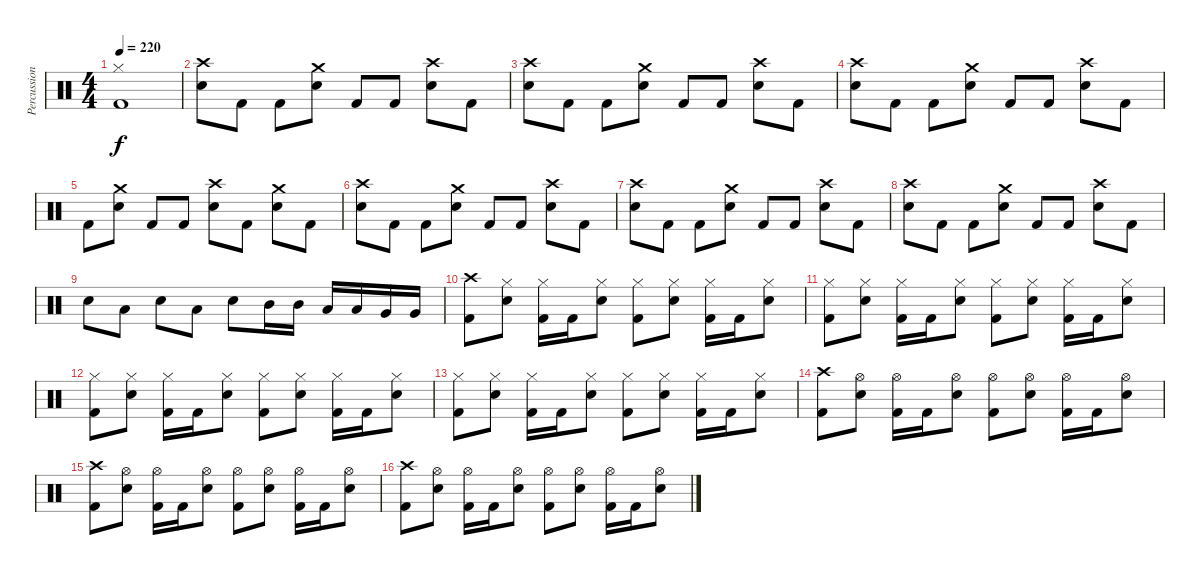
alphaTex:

\track ("Percussions" "Percussion") {instrument percussion}
\staff {score}
\articulation defaults
\ts (4 4)
\tempo 220
\clef neutral
\ks c
("Hi-Hat (closed)" "Kick (hit) 2").1{dy f} |
("Crash high (hit)" "Snare (hit) 2").8 "Kick (hit) 2".8 "Kick (hit) 2".8 ("Crash medium (hit)" "Snare (hit) 2").8 "Kick (hit) 2".8 "Kick (hit) 2".8 ("Crash high (hit)" "Snare (hit) 2").8 "Kick (hit) 2".8 |
("Crash high (hit)" "Snare (hit) 2").8 "Kick (hit) 2".8 "Kick (hit) 2".8 ("Crash medium (hit)" "Snare (hit) 2").8 "Kick (hit) 2".8 "Kick (hit) 2".8 ("Crash high (hit)" "Snare (hit) 2").8 "Kick (hit) 2".8 |
("Crash high (hit)" "Snare (hit) 2").8 "Kick (hit) 2".8 "Kick (hit) 2".8 ("Crash medium (hit)" "Snare (hit) 2").8 "Kick (hit) 2".8 "Kick (hit) 2".8 ("Crash high (hit)" "Snare (hit) 2").8 "Kick (hit) 2".8 |
"Kick (hit) 2".8 ("Crash medium (hit)" "Snare (hit) 2").8 "Kick (hit) 2".8 "Kick (hit) 2".8 ("Crash high (hit)" "Snare (hit) 2").8 "Kick (hit) 2".8 ("Crash medium (hit)" "Snare (hit) 2").8 "Kick (hit) 2".8 |
("Crash high (hit)" "Snare (hit) 2").8 "Kick (hit) 2".8 "Kick (hit) 2".8 ("Crash medium (hit)" "Snare (hit) 2").8 "Kick (hit) 2".8 "Kick (hit) 2".8 ("Crash high (hit)" "Snare (hit) 2").8 "Kick (hit) 2".8 |
("Crash high (hit)" "Snare (hit) 2").8 "Kick (hit) 2".8 "Kick (hit) 2".8 ("Crash medium (hit)" "Snare (hit) 2").8 "Kick (hit) 2".8 "Kick (hit) 2".8 ("Crash high (hit)" "Snare (hit) 2").8 "Kick (hit) 2".8 |
("Crash high (hit)" "Snare (hit) 2").8 "Kick (hit) 2".8 "Kick (hit) 2".8 ("Crash medium (hit)" "Snare (hit) 2").8 "Kick (hit) 2".8 "Kick (hit) 2".8 ("Crash high (hit)" "Snare (hit) 2").8 "Kick (hit) 2".8 |
"Snare (hit) 2".8 "Low Tom (hit)".8 "Snare (hit) 2".8 "Low Tom (hit)".8 "Snare (hit) 2".8 "Mid Tom (hit)".16 "Mid Tom (hit)".16 "Low Tom (hit)".16 "Low Tom (hit)".16 "Very Low Tom (hit)".16 "Very Low Tom (hit)".16 |
("Crash high (hit)" "Kick (hit) 2").8 ("Hi-Hat (closed)" "Snare (hit) 2").8 ("Hi-Hat (closed)" "Kick (hit) 2").16 "Kick (hit) 2".16 ("Hi-Hat (closed)" "Snare (hit) 2").8 ("Hi-Hat (closed)" "Kick (hit) 2").8 ("Hi-Hat (closed)" "Snare (hit) 2").8 ("Hi-Hat (closed)" "Kick (hit) 2").16 "Kick (hit) 2".16 ("Hi-Hat (closed)" "Snare (hit) 2").8 |
("Hi-Hat (closed)" "Kick (hit) 2").8 ("Hi-Hat (closed)" "Snare (hit) 2").8 ("Hi-Hat (closed)" "Kick (hit) 2").16 "Kick (hit) 2".16 ("Hi-Hat (closed)" "Snare (hit) 2").8 ("Hi-Hat (closed)" "Kick (hit) 2").8 ("Hi-Hat (closed)" "Snare (hit) 2").8 ("Hi-Hat (closed)" "Kick (hit) 2").16 "Kick (hit) 2".16 ("Hi-Hat (closed)" "Snare (hit) 2").8 |
("Hi-Hat (closed)" "Kick (hit) 2").8 ("Hi-Hat (closed)" "Snare (hit) 2").8 ("Hi-Hat (closed)" "Kick (hit) 2").16 "Kick (hit) 2".16 ("Hi-Hat (closed)" "Snare (hit) 2").8 ("Hi-Hat (closed)" "Kick (hit) 2").8 ("Hi-Hat (closed)" "Snare (hit) 2").8 ("Hi-Hat (closed)" "Kick (hit) 2").16 "Kick (hit) 2".16 ("Hi-Hat (closed)" "Snare (hit) 2").8 |
("Hi-Hat (closed)" "Kick (hit) 2").8 ("Hi-Hat (closed)" "Snare (hit) 2").8 ("Hi-Hat (closed)" "Kick (hit) 2").16 "Kick (hit) 2".16 ("Hi-Hat (closed)" "Snare (hit) 2").8 ("Hi-Hat (closed)" "Kick (hit) 2").8 ("Hi-Hat (closed)" "Snare (hit) 2").8 ("Hi-Hat (closed)" "Kick (hit) 2").16 "Kick (hit) 2".16 ("Hi-Hat (closed)" "Snare (hit) 2").8 |
("Crash high (hit)" "Kick (hit) 2").8 ("Hi-Hat (open)" "Snare (hit) 2").8 ("Hi-Hat (open)" "Kick (hit) 2").16 "Kick (hit) 2".16 ("Hi-Hat (open)" "Snare (hit) 2").8 ("Hi-Hat (open)" "Kick (hit) 2").8 ("Hi-Hat (open)" "Snare (hit) 2").8 ("Hi-Hat (open)" "Kick (hit) 2").16 "Kick (hit) 2".16 ("Hi-Hat (open)" "Snare (hit) 2").8 |
("Crash high (hit)" "Kick (hit) 2").8 ("Hi-Hat (open)" "Snare (hit) 2").8 ("Hi-Hat (open)" "Kick (hit) 2").16 "Kick (hit) 2".16 ("Hi-Hat (open)" "Snare (hit) 2").8 ("Hi-Hat (open)" "Kick (hit) 2").8 ("Hi-Hat (open)" "Snare (hit) 2").8 ("Hi-Hat (open)" "Kick (hit) 2").16 "Kick (hit) 2".16 ("Hi-Hat (open)" "Snare (hit) 2").8 |
("Crash high (hit)" "Kick (hit) 2").8 ("Hi-Hat (open)" "Snare (hit) 2").8 ("Hi-Hat (open)" "Kick (hit) 2").16 "Kick (hit) 2".16 ("Hi-Hat (open)" "Snare (hit) 2").8 ("Hi-Hat (open)" "Kick (hit) 2").8 ("Hi-Hat (open)" "Snare (hit) 2").8 ("Hi-Hat (open)" "Kick (hit) 2").16 "Kick (hit) 2".16 ("Hi-Hat (open)" "Snare (hit) 2").8
